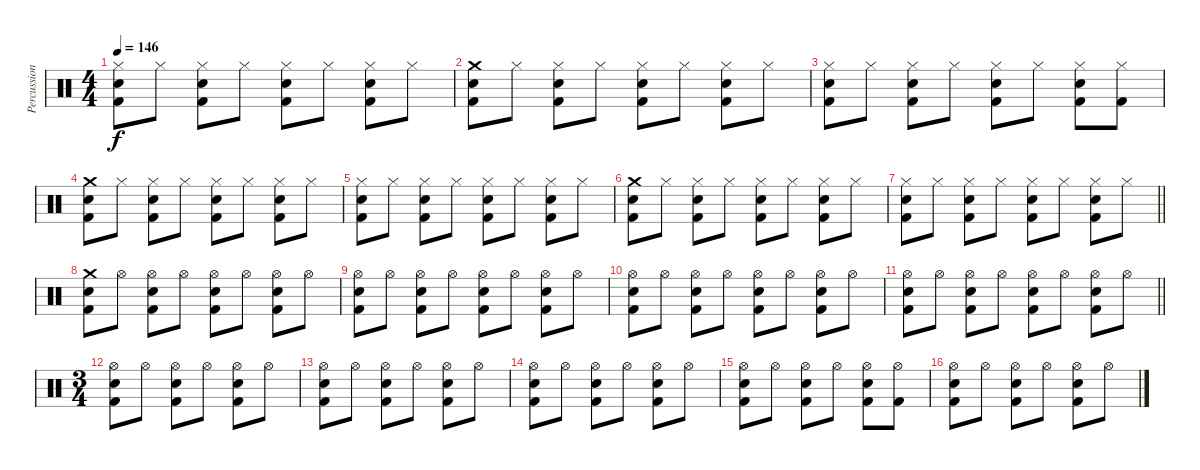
\track ("Percussion" "Percussion") {instrument percussion}
\staff {score}
\articulation defaults
\ts (4 4)
\tempo 146
\clef neutral
\ks c
("Hi-Hat (closed)" "Snare (hit) 2" "Kick (hit) 2").8{dy f} "Hi-Hat (closed)".8 ("Hi-Hat (closed)" "Snare (hit) 2" "Kick (hit) 2").8 "Hi-Hat (closed)".8 ("Hi-Hat (closed)" "Snare (hit) 2" "Kick (hit) 2").8 "Hi-Hat (closed)".8 ("Hi-Hat (closed)" "Snare (hit) 2" "Kick (hit) 2").8 "Hi-Hat (closed)".8 |
("Crash medium (hit)" "Snare (hit) 2" "Kick (hit) 2").8 "Hi-Hat (closed)".8 ("Hi-Hat (closed)" "Snare (hit) 2" "Kick (hit) 2").8 "Hi-Hat (closed)".8 ("Hi-Hat (closed)" "Snare (hit) 2" "Kick (hit) 2").8 "Hi-Hat (closed)".8 ("Hi-Hat (closed)" "Snare (hit) 2" "Kick (hit) 2").8 "Hi-Hat (closed)".8 |
("Hi-Hat (closed)" "Snare (hit) 2" "Kick (hit) 2").8 "Hi-Hat (closed)".8 ("Hi-Hat (closed)" "Snare (hit) 2" "Kick (hit) 2").8 "Hi-Hat (closed)".8 ("Hi-Hat (closed)" "Snare (hit) 2" "Kick (hit) 2").8 "Hi-Hat (closed)".8 ("Hi-Hat (closed)" "Snare (hit) 2" "Kick (hit) 2").8 ("Hi-Hat (closed)" "Kick (hit) 2").8 |
("Crash medium (hit)" "Snare (hit) 2" "Kick (hit) 2").8 "Hi-Hat (closed)".8 ("Hi-Hat (closed)" "Snare (hit) 2" "Kick (hit) 2").8 "Hi-Hat (closed)".8 ("Hi-Hat (closed)" "Snare (hit) 2" "Kick (hit) 2").8 "Hi-Hat (closed)".8 ("Hi-Hat (closed)" "Snare (hit) 2" "Kick (hit) 2").8 "Hi-Hat (closed)".8 |
("Hi-Hat (closed)" "Snare (hit) 2" "Kick (hit) 2").8 "Hi-Hat (closed)".8 ("Hi-Hat (closed)" "Snare (hit) 2" "Kick (hit) 2").8 "Hi-Hat (closed)".8 ("Hi-Hat (closed)" "Snare (hit) 2" "Kick (hit) 2").8 "Hi-Hat (closed)".8 ("Hi-Hat (closed)" "Snare (hit) 2" "Kick (hit) 2").8 "Hi-Hat (closed)".8 |
("Crash medium (hit)" "Snare (hit) 2" "Kick (hit) 2").8 "Hi-Hat (closed)".8 ("Hi-Hat (closed)" "Snare (hit) 2" "Kick (hit) 2").8 "Hi-Hat (closed)".8 ("Hi-Hat (closed)" "Snare (hit) 2" "Kick (hit) 2").8 "Hi-Hat (closed)".8 ("Hi-Hat (closed)" "Snare (hit) 2" "Kick (hit) 2").8 "Hi-Hat (closed)".8 |
\barLineRight lightlight
("Hi-Hat (closed)" "Snare (hit) 2" "Kick (hit) 2").8 "Hi-Hat (closed)".8 ("Hi-Hat (closed)" "Snare (hit) 2" "Kick (hit) 2").8 "Hi-Hat (closed)".8 ("Hi-Hat (closed)" "Snare (hit) 2" "Kick (hit) 2").8 "Hi-Hat (closed)".8 ("Hi-Hat (closed)" "Snare (hit) 2" "Kick (hit) 2").8 "Hi-Hat (closed)".8 |
("Crash medium (hit)" "Snare (hit) 2" "Kick (hit) 2").8 "Hi-Hat (open)".8 ("Hi-Hat (open)" "Snare (hit) 2" "Kick (hit) 2").8 "Hi-Hat (open)".8 ("Hi-Hat (open)" "Snare (hit) 2" "Kick (hit) 2").8 "Hi-Hat (open)".8 ("Hi-Hat (open)" "Snare (hit) 2" "Kick (hit) 2").8 "Hi-Hat (open)".8 |
("Hi-Hat (open)" "Snare (hit) 2" "Kick (hit) 2").8 "Hi-Hat (open)".8 ("Hi-Hat (open)" "Snare (hit) 2" "Kick (hit) 2").8 "Hi-Hat (open)".8 ("Hi-Hat (open)" "Snare (hit) 2" "Kick (hit) 2").8 "Hi-Hat (open)".8 ("Hi-Hat (open)" "Snare (hit) 2" "Kick (hit) 2").8 "Hi-Hat (open)".8 |
("Hi-Hat (open)" "Snare (hit) 2" "Kick (hit) 2").8 "Hi-Hat (open)".8 ("Hi-Hat (open)" "Snare (hit) 2" "Kick (hit) 2").8 "Hi-Hat (open)".8 ("Hi-Hat (open)" "Snare (hit) 2" "Kick (hit) 2").8 "Hi-Hat (open)".8 ("Hi-Hat (open)" "Snare (hit) 2" "Kick (hit) 2").8 "Hi-Hat (open)".8 |
\barLineRight lightlight
("Hi-Hat (open)" "Snare (hit) 2" "Kick (hit) 2").8 "Hi-Hat (open)".8 ("Hi-Hat (open)" "Snare (hit) 2" "Kick (hit) 2").8 "Hi-Hat (open)".8 ("Hi-Hat (open)" "Snare (hit) 2" "Kick (hit) 2").8 "Hi-Hat (open)".8 ("Hi-Hat (open)" "Snare (hit) 2" "Kick (hit) 2").8 "Hi-Hat (open)".8 |
\ts (3 4)
("Hi-Hat (open)" "Snare (hit) 2" "Kick (hit) 2").8 "Hi-Hat (open)".8 ("Hi-Hat (open)" "Snare (hit) 2" "Kick (hit) 2").8 "Hi-Hat (open)".8 ("Hi-Hat (open)" "Snare (hit) 2" "Kick (hit) 2").8 "Hi-Hat (open)".8 |
("Hi-Hat (open)" "Snare (hit) 2" "Kick (hit) 2").8 "Hi-Hat (open)".8 ("Hi-Hat (open)" "Snare (hit) 2" "Kick (hit) 2").8 "Hi-Hat (open)".8 ("Hi-Hat (open)" "Snare (hit) 2" "Kick (hit) 2").8 "Hi-Hat (open)".8 |
("Hi-Hat (open)" "Snare (hit) 2" "Kick (hit) 2").8 "Hi-Hat (open)".8 ("Hi-Hat (open)" "Snare (hit) 2" "Kick (hit) 2").8 "Hi-Hat (open)".8 ("Hi-Hat (open)" "Snare (hit) 2" "Kick (hit) 2").8 "Hi-Hat (open)".8 |
("Hi-Hat (open)" "Snare (hit) 2" "Kick (hit) 2").8 "Hi-Hat (open)".8 ("Hi-Hat (open)" "Snare (hit) 2" "Kick (hit) 2").8 "Hi-Hat (open)".8 ("Hi-Hat (open)" "Snare (hit) 2" "Kick (hit) 2").8 ("Hi-Hat (open)" "Kick (hit) 2").8 |
("Hi-Hat (open)" "Snare (hit) 2" "Kick (hit) 2").8 "Hi-Hat (open)".8 ("Hi-Hat (open)" "Snare (hit) 2" "Kick (hit) 2").8 "Hi-Hat (open)".8 ("Hi-Hat (open)" "Snare (hit) 2" "Kick (hit) 2").8 "Hi-Hat (open)".8
